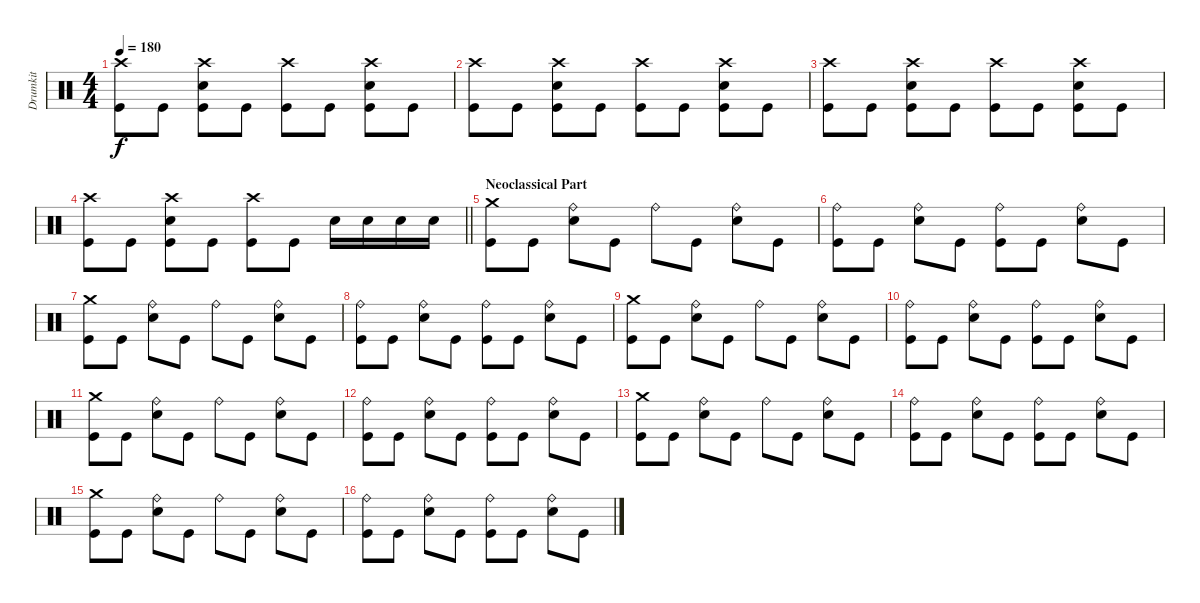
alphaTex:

\track ("Drumkit" "Drumkit") {instrument percussion}
\staff {score}
\articulation defaults
\ts (4 4)
\tempo 180
\clef neutral
\ks c
("Crash high (hit)" "Kick (hit)").8{dy f} "Kick (hit)".8 ("Crash high (hit)" "Snare (hit) 2" "Kick (hit)").8 "Kick (hit)".8 ("Crash high (hit)" "Kick (hit)").8 "Kick (hit)".8 ("Crash high (hit)" "Snare (hit) 2" "Kick (hit)").8 "Kick (hit)".8 |
("Crash high (hit)" "Kick (hit)").8 "Kick (hit)".8 ("Crash high (hit)" "Snare (hit) 2" "Kick (hit)").8 "Kick (hit)".8 ("Crash high (hit)" "Kick (hit)").8 "Kick (hit)".8 ("Crash high (hit)" "Snare (hit) 2" "Kick (hit)").8 "Kick (hit)".8 |
("Crash high (hit)" "Kick (hit)").8 "Kick (hit)".8 ("Crash high (hit)" "Snare (hit) 2" "Kick (hit)").8 "Kick (hit)".8 ("Crash high (hit)" "Kick (hit)").8 "Kick (hit)".8 ("Crash high (hit)" "Snare (hit) 2" "Kick (hit)").8 "Kick (hit)".8 |
\barLineRight lightlight
("Crash high (hit)" "Kick (hit)").8 "Kick (hit)".8 ("Crash high (hit)" "Snare (hit) 2" "Kick (hit)").8 "Kick (hit)".8 ("Crash high (hit)" "Kick (hit)").8 "Kick (hit)".8 "Snare (hit) 2".16 "Snare (hit) 2".16 "Snare (hit) 2".16 "Snare (hit) 2".16 |
\section ("" "Neoclassical Part")
("Crash medium (hit)" "Kick (hit)").8 "Kick (hit)".8 ("Ride (bell)" "Snare (hit) 2").8 "Kick (hit)".8 "Ride (bell)".8 "Kick (hit)".8 ("Ride (bell)" "Snare (hit) 2").8 "Kick (hit)".8 |
("Ride (bell)" "Kick (hit)").8 "Kick (hit)".8 ("Ride (bell)" "Snare (hit) 2").8 "Kick (hit)".8 ("Ride (bell)" "Kick (hit)").8 "Kick (hit)".8 ("Ride (bell)" "Snare (hit) 2").8 "Kick (hit)".8 |
("Crash medium (hit)" "Kick (hit)").8 "Kick (hit)".8 ("Ride (bell)" "Snare (hit) 2").8 "Kick (hit)".8 "Ride (bell)".8 "Kick (hit)".8 ("Ride (bell)" "Snare (hit) 2").8 "Kick (hit)".8 |
("Ride (bell)" "Kick (hit)").8 "Kick (hit)".8 ("Ride (bell)" "Snare (hit) 2").8 "Kick (hit)".8 ("Ride (bell)" "Kick (hit)").8 "Kick (hit)".8 ("Ride (bell)" "Snare (hit) 2").8 "Kick (hit)".8 |
("Crash medium (hit)" "Kick (hit)").8 "Kick (hit)".8 ("Ride (bell)" "Snare (hit) 2").8 "Kick (hit)".8 "Ride (bell)".8 "Kick (hit)".8 ("Ride (bell)" "Snare (hit) 2").8 "Kick (hit)".8 |
("Ride (bell)" "Kick (hit)").8 "Kick (hit)".8 ("Ride (bell)" "Snare (hit) 2").8 "Kick (hit)".8 ("Ride (bell)" "Kick (hit)").8 "Kick (hit)".8 ("Ride (bell)" "Snare (hit) 2").8 "Kick (hit)".8 |
("Crash medium (hit)" "Kick (hit)").8 "Kick (hit)".8 ("Ride (bell)" "Snare (hit) 2").8 "Kick (hit)".8 "Ride (bell)".8 "Kick (hit)".8 ("Ride (bell)" "Snare (hit) 2").8 "Kick (hit)".8 |
("Ride (bell)" "Kick (hit)").8 "Kick (hit)".8 ("Ride (bell)" "Snare (hit) 2").8 "Kick (hit)".8 ("Ride (bell)" "Kick (hit)").8 "Kick (hit)".8 ("Ride (bell)" "Snare (hit) 2").8 "Kick (hit)".8 |
("Crash medium (hit)" "Kick (hit)").8 "Kick (hit)".8 ("Ride (bell)" "Snare (hit) 2").8 "Kick (hit)".8 "Ride (bell)".8 "Kick (hit)".8 ("Ride (bell)" "Snare (hit) 2").8 "Kick (hit)".8 |
("Ride (bell)" "Kick (hit)").8 "Kick (hit)".8 ("Ride (bell)" "Snare (hit) 2").8 "Kick (hit)".8 ("Ride (bell)" "Kick (hit)").8 "Kick (hit)".8 ("Ride (bell)" "Snare (hit) 2").8 "Kick (hit)".8 |
("Crash medium (hit)" "Kick (hit)").8 "Kick (hit)".8 ("Ride (bell)" "Snare (hit) 2").8 "Kick (hit)".8 "Ride (bell)".8 "Kick (hit)".8 ("Ride (bell)" "Snare (hit) 2").8 "Kick (hit)".8 |
("Ride (bell)" "Kick (hit)").8 "Kick (hit)".8 ("Ride (bell)" "Snare (hit) 2").8 "Kick (hit)".8 ("Ride (bell)" "Kick (hit)").8 "Kick (hit)".8 ("Ride (bell)" "Snare (hit) 2").8 "Kick (hit)".8
